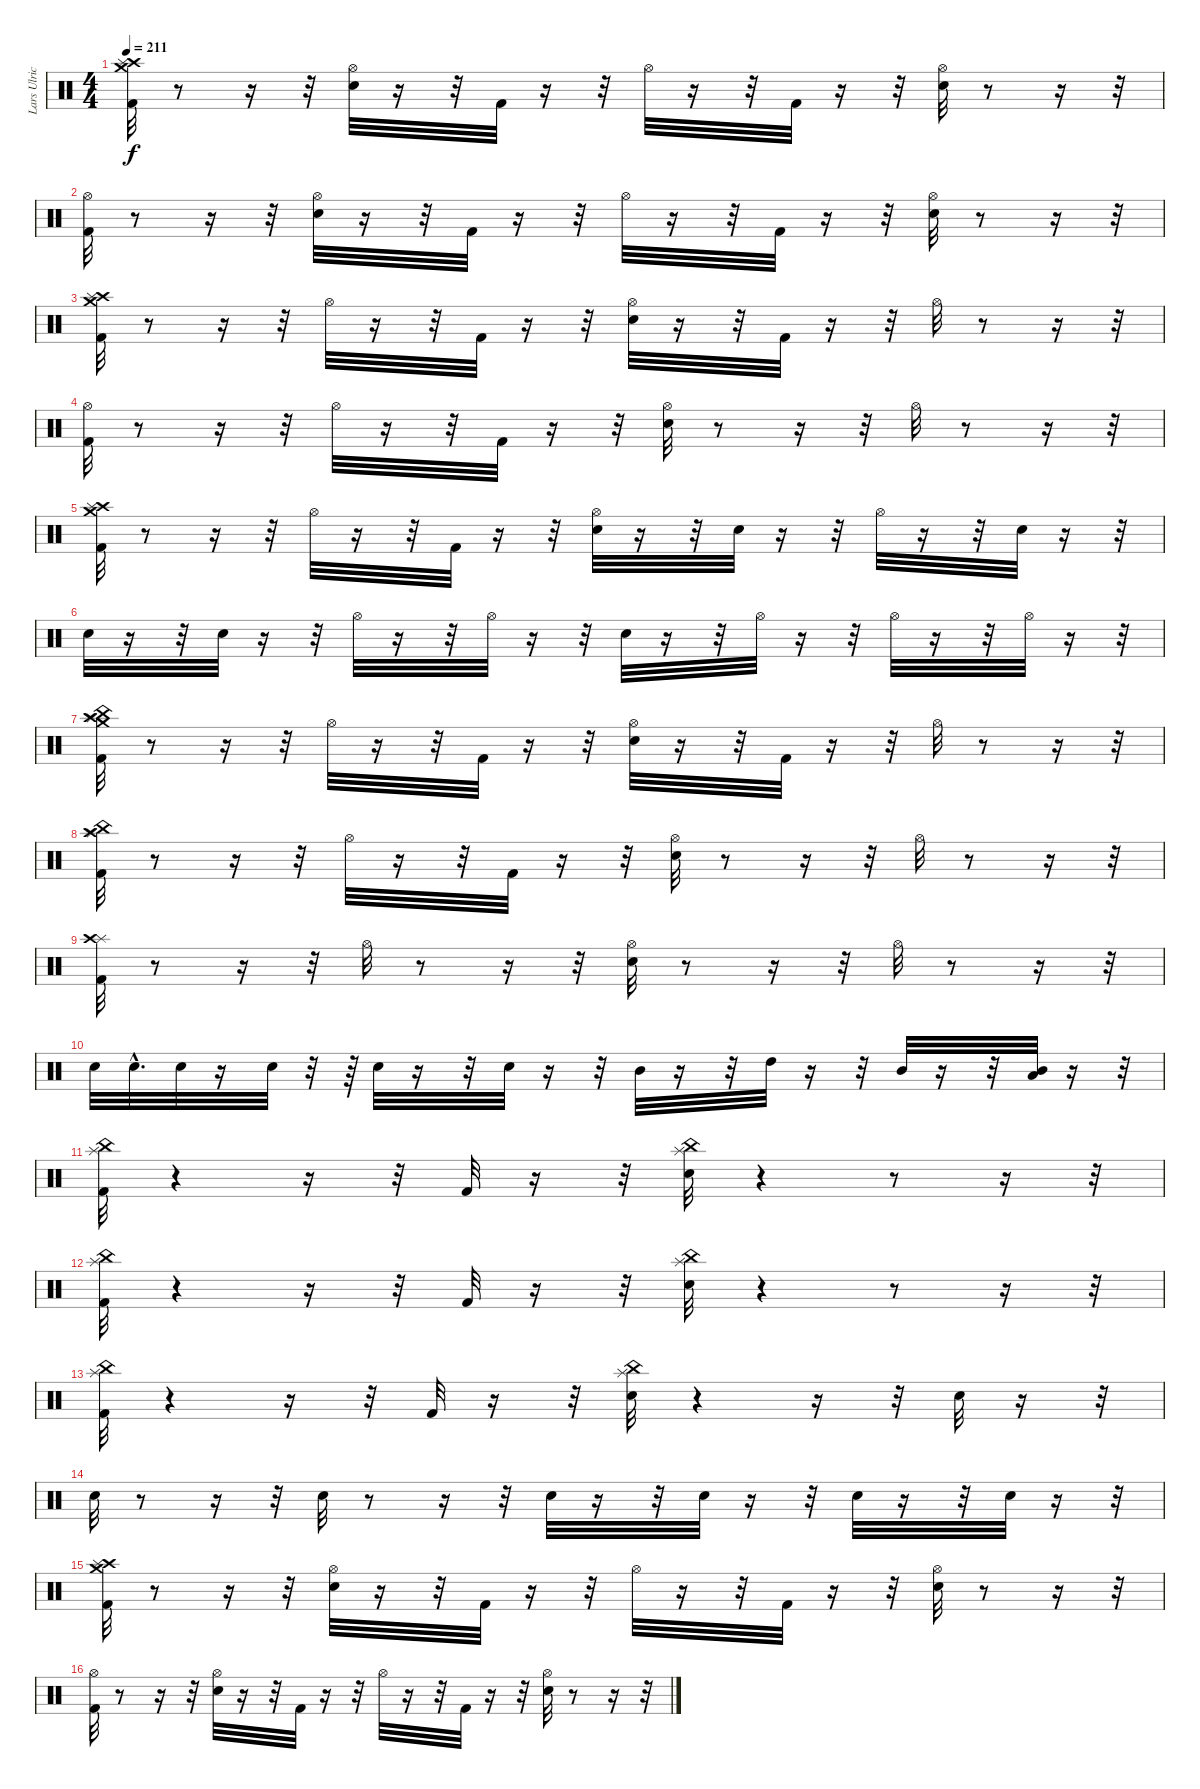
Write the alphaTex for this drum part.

\track ("Lars Ulrich (Drums)" "Lars Ulric") {instrument percussion}
\staff {score}
\articulation defaults
\ts (4 4)
\tempo 211
\clef neutral
\ks c
("Kick (hit) 2" "Crash high (hit)" "Crash medium (hit)" "Splash (hit)").32{dy f} r.8 r.16 r.32 ("Snare (hit) 2" "Hi-Hat (open)").32 r.16 r.32 "Kick (hit) 2".32 r.16 r.32 "Hi-Hat (open)".32 r.16 r.32 "Kick (hit) 2".32 r.16 r.32 ("Snare (hit) 2" "Hi-Hat (open)").32 r.8 r.16 r.32 |
("Kick (hit) 2" "Hi-Hat (open)").32 r.8 r.16 r.32 ("Snare (hit) 2" "Hi-Hat (open)").32 r.16 r.32 "Kick (hit) 2".32 r.16 r.32 "Hi-Hat (open)".32 r.16 r.32 "Kick (hit) 2".32 r.16 r.32 ("Snare (hit) 2" "Hi-Hat (open)").32 r.8 r.16 r.32 |
("Crash high (hit)" "Crash medium (hit)" "Splash (hit)" "Kick (hit) 2").32 r.8 r.16 r.32 "Hi-Hat (open)".32 r.16 r.32 "Kick (hit) 2".32 r.16 r.32 ("Hi-Hat (open)" "Snare (hit) 2").32 r.16 r.32 "Kick (hit) 2".32 r.16 r.32 "Hi-Hat (open)".32 r.8 r.16 r.32 |
("Hi-Hat (open)" "Kick (hit) 2").32 r.8 r.16 r.32 "Hi-Hat (open)".32 r.16 r.32 "Kick (hit) 2".32 r.16 r.32 ("Hi-Hat (open)" "Snare (hit) 2").32 r.8 r.16 r.32 "Hi-Hat (open)".32 r.8 r.16 r.32 |
("Crash high (hit)" "Splash (hit)" "Crash medium (hit)" "Kick (hit) 2").32 r.8 r.16 r.32 "Hi-Hat (open)".32 r.16 r.32 "Kick (hit) 2".32 r.16 r.32 ("Hi-Hat (open)" "Snare (hit) 2").32 r.16 r.32 "Snare (hit) 2".32 r.16 r.32 "Hi-Hat (open)".32 r.16 r.32 "Snare (hit) 2".32 r.16 r.32 |
"Snare (hit) 2".32 r.16 r.32 "Snare (hit) 2".32 r.16 r.32 "Hi-Hat (open)".32 r.16 r.32 "Hi-Hat (open)".32 r.16 r.32 "Snare (hit) 2".32 r.16 r.32 "Hi-Hat (open)".32 r.16 r.32 "Hi-Hat (open)".32 r.16 r.32 "Hi-Hat (open)".32 r.16 r.32 |
("China (hit)" "Kick (hit) 2" "Crash high (hit)" "Splash (hit)" "Crash medium (hit)").32 r.8 r.16 r.32 "Hi-Hat (open)".32 r.16 r.32 "Kick (hit) 2".32 r.16 r.32 ("Hi-Hat (open)" "Snare (hit) 2").32 r.16 r.32 "Kick (hit) 2".32 r.16 r.32 "Hi-Hat (open)".32 r.8 r.16 r.32 |
("China (hit)" "Splash (hit)" "Crash high (hit)" "Kick (hit) 2").32 r.8 r.16 r.32 "Hi-Hat (open)".32 r.16 r.32 "Kick (hit) 2".32 r.16 r.32 ("Hi-Hat (open)" "Snare (hit) 2").32 r.8 r.16 r.32 "Hi-Hat (open)".32 r.8 r.16 r.32 |
("Kick (hit) 2" "Splash (hit)" "Crash high (hit)").32 r.8 r.16 r.32 "Hi-Hat (open)".32 r.8 r.16 r.32 ("Hi-Hat (open)" "Snare (hit) 2").32 r.8 r.16 r.32 "Hi-Hat (open)".32 r.8 r.16 r.32 |
"Snare (hit) 2".32 "Snare (hit) 2"{hac}.32{d} "Snare (hit) 2".32 r.16 "Snare (hit) 2".32 r.32 r.64 "Snare (hit) 2".32 r.16 r.32 "Snare (hit) 2".32 r.16 r.32 "Mid Tom (hit)".32 r.16 r.32 "High Tom (hit)".32 r.16 r.32 "Mid Tom (hit)".32 r.16 r.32 ("Mid Tom (hit)" "Low Tom (hit)").32 r.16 r.32 |
("Kick (hit) 2" "China (hit)" "Splash (hit)").32 r.4 r.16 r.32 "Kick (hit) 2".32 r.16 r.32 ("Snare (hit) 2" "China (hit)" "Splash (hit)").32 r.4 r.8 r.16 r.32 |
("Kick (hit) 2" "China (hit)" "Splash (hit)").32 r.4 r.16 r.32 "Kick (hit) 2".32 r.16 r.32 ("Snare (hit) 2" "China (hit)" "Splash (hit)").32 r.4 r.8 r.16 r.32 |
("Kick (hit) 2" "China (hit)" "Splash (hit)").32 r.4 r.16 r.32 "Kick (hit) 2".32 r.16 r.32 ("Snare (hit) 2" "China (hit)" "Splash (hit)").32 r.4 r.16 r.32 "Snare (hit) 2".32 r.16 r.32 |
"Snare (hit) 2".32 r.8 r.16 r.32 "Snare (hit) 2".32 r.8 r.16 r.32 "Snare (hit) 2".32 r.16 r.32 "Snare (hit) 2".32 r.16 r.32 "Snare (hit) 2".32 r.16 r.32 "Snare (hit) 2".32 r.16 r.32 |
("Kick (hit) 2" "Crash high (hit)" "Crash medium (hit)" "Splash (hit)").32 r.8 r.16 r.32 ("Snare (hit) 2" "Hi-Hat (open)").32 r.16 r.32 "Kick (hit) 2".32 r.16 r.32 "Hi-Hat (open)".32 r.16 r.32 "Kick (hit) 2".32 r.16 r.32 ("Snare (hit) 2" "Hi-Hat (open)").32 r.8 r.16 r.32 |
("Kick (hit) 2" "Hi-Hat (open)").32 r.8 r.16 r.32 ("Snare (hit) 2" "Hi-Hat (open)").32 r.16 r.32 "Kick (hit) 2".32 r.16 r.32 "Hi-Hat (open)".32 r.16 r.32 "Kick (hit) 2".32 r.16 r.32 ("Snare (hit) 2" "Hi-Hat (open)").32 r.8 r.16 r.32
